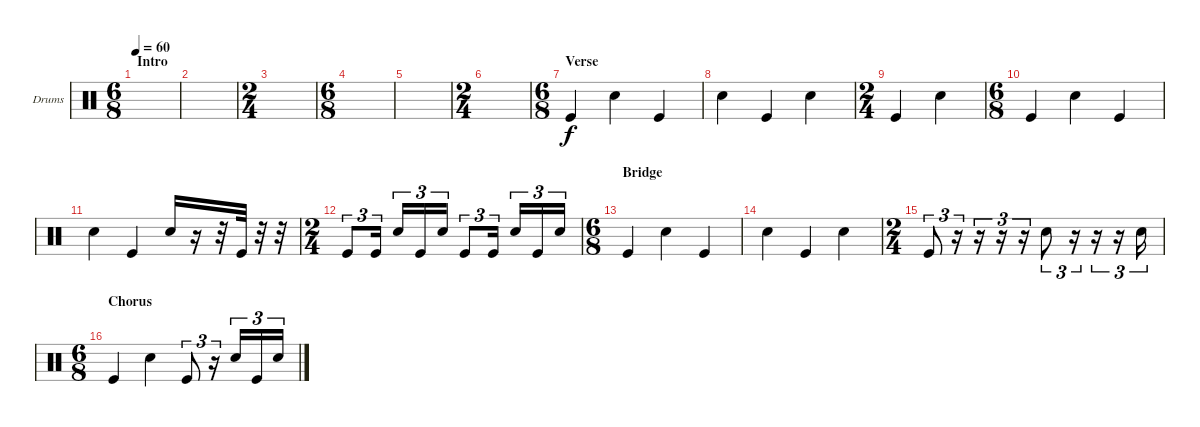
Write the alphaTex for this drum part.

\defaultSystemsLayout 4
\bracketExtendMode groupsimilarinstruments
\firstSystemTrackNameOrientation horizontal
\otherSystemsTrackNameOrientation horizontal
\track ("Drumkit" "Drums") {instrument percussion}
\staff {score}
\articulation defaults
\ts (6 8)
\section ("" "Intro")
\tempo 60
\clef neutral
\scale
0.391473
\ks c
|
\scale
0.217054 |
\ts (2 4)
\scale
0.391473 |
\ts (6 8)
\scale
0.391473 |
\scale
0.217054 |
\ts (2 4)
\scale
0.391473 |
\ts (6 8)
\section ("" "Verse")
"Kick (hit)".4 "Snare (hit) 2".4 "Kick (hit)".4 |
"Snare (hit) 2".4 "Kick (hit)".4 "Snare (hit) 2".4 |
\ts (2 4)
"Kick (hit)".4 "Snare (hit) 2".4 |
\ts (6 8)
"Kick (hit)".4 "Snare (hit) 2".4 "Kick (hit)".4 |
"Snare (hit) 2".4 "Kick (hit)".4 "Snare (hit) 2".16 r.16 r.32 "Kick (hit)".32 r.32 r.32 |
\ts (2 4)
"Kick (hit)".8{tu (3 2)} "Kick (hit)".16{tu (3 2)} "Snare (hit) 2".16{tu (3 2)} "Kick (hit)".16{tu (3 2)} "Snare (hit) 2".16{tu (3 2)} "Kick (hit)".8{tu (3 2)} "Kick (hit)".16{tu (3 2)} "Snare (hit) 2".16{tu (3 2)} "Kick (hit)".16{tu (3 2)} "Snare (hit) 2".16{tu (3 2)} |
\ts (6 8)
\section ("" "Bridge")
"Kick (hit)".4 "Snare (hit) 2".4 "Kick (hit)".4 |
"Snare (hit) 2".4 "Kick (hit)".4 "Snare (hit) 2".4 |
\ts (2 4)
"Kick (hit)".8{tu (3 2)} r.16{tu (3 2)} r.16{tu (3 2)} r.16{tu (3 2)} r.16{tu (3 2)} "Snare (hit) 2".8{tu (3 2)} r.16{tu (3 2)} r.16{tu (3 2)} r.16{tu (3 2)} "Snare (hit) 2".16{tu (3 2)} |
\ts (6 8)
\section ("" "Chorus")
"Kick (hit)".4 "Snare (hit) 2".4 "Kick (hit)".8{tu (3 2)} r.16{tu (3 2)} "Snare (hit) 2".16{tu (3 2)} "Kick (hit)".16{tu (3 2)} "Snare (hit) 2".16{tu (3 2)}
